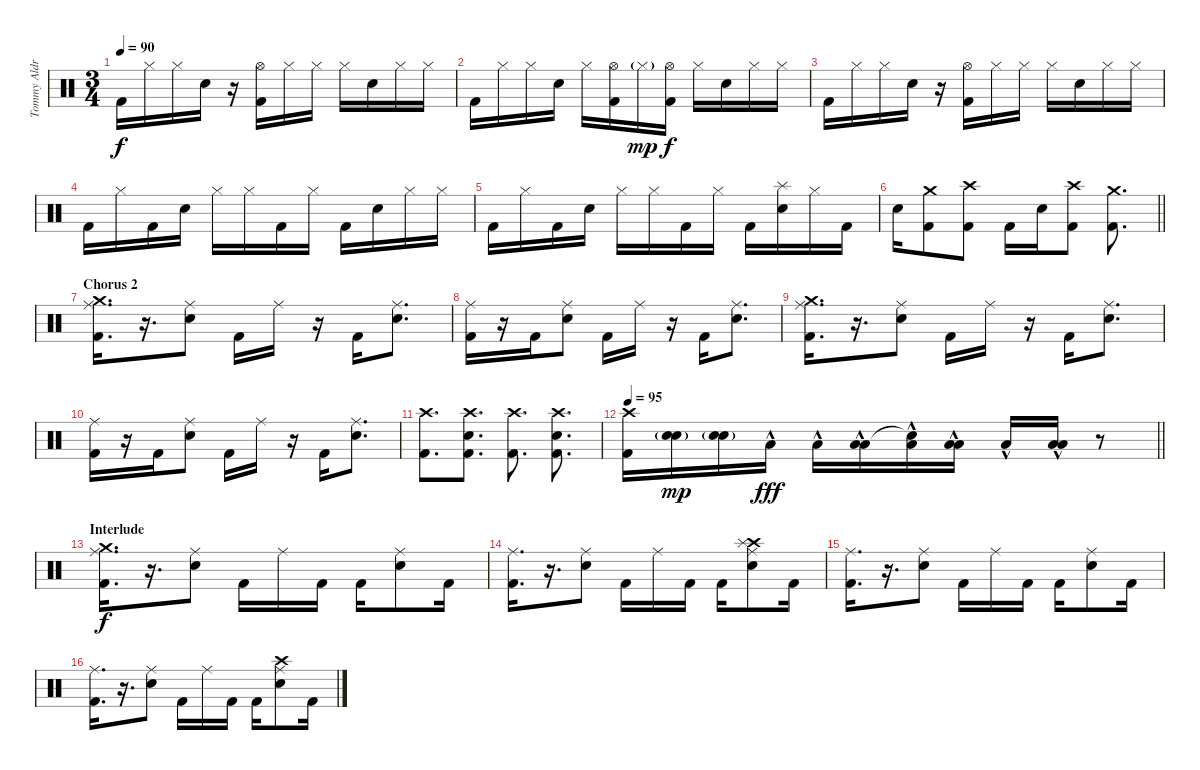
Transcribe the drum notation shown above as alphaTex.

\track ("Tommy Aldridge" "Tommy Aldr") {instrument percussion}
\staff {score}
\articulation defaults
\ts (3 4)
\tempo 90
\clef neutral
\ks c "Kick (hit) 2".16{dy f} "Hi-Hat (closed)".16 "Hi-Hat (closed)".16 "Snare (hit) 2".16
r.16 ("Hi-Hat (open)" "Kick (hit) 2").16 "Hi-Hat (closed)".16 "Hi-Hat (closed)".16 "Hi-Hat (closed)".16 "Snare (hit) 2".16 "Hi-Hat (closed)".16 "Hi-Hat (closed)".16 |
"Kick (hit) 2".16 "Hi-Hat (closed)".16 "Hi-Hat (closed)".16 "Snare (hit) 2".16 "Hi-Hat (closed)".16 ("Hi-Hat (open)" "Kick (hit) 2").16 "Hi-Hat (closed)"{g}.16{dy mp} ("Hi-Hat (open)" "Kick (hit) 2").16{dy f} "Hi-Hat (closed)".16 "Snare (hit) 2".16 "Hi-Hat (closed)".16 "Hi-Hat (closed)".16 |
"Kick (hit) 2".16 "Hi-Hat (closed)".16 "Hi-Hat (closed)".16 "Snare (hit) 2".16 r.16 ("Hi-Hat (open)" "Kick (hit) 2").16 "Hi-Hat (closed)".16 "Hi-Hat (closed)".16 "Hi-Hat (closed)".16 "Snare (hit) 2".16 "Hi-Hat (closed)".16 "Hi-Hat (closed)".16 |
"Kick (hit) 2".16 "Hi-Hat (closed)".16 "Kick (hit) 2".16 "Snare (hit) 2".16 "Hi-Hat (closed)".16 "Hi-Hat (closed)".16 "Kick (hit) 2".16 "Hi-Hat (closed)".16 "Kick (hit) 2".16 "Snare (hit) 2".16 "Hi-Hat (closed)".16 "Hi-Hat (closed)".16 |
"Kick (hit) 2".16 "Hi-Hat (closed)".16 "Kick (hit) 2".16 "Snare (hit) 2".16 "Hi-Hat (closed)".16 "Hi-Hat (closed)".16 "Kick (hit) 2".16 "Hi-Hat (closed)".16 "Kick (hit) 2".16 ("Splash (hit)" "Snare (hit) 2").16 "Hi-Hat (closed)".16 "Kick (hit) 2".16 |
\barLineRight lightlight "Snare (hit) 2".16
("Crash medium (hit)" "Kick (hit) 2").8 ("Crash high (hit)" "Kick (hit) 2").8 "Kick (hit) 2".16 "Snare (hit) 2".16 ("Crash high (hit)" "Kick (hit) 2").8 ("Crash medium (hit)" "Kick (hit) 2").8{d} |
\section ("" "Chorus 2")
("Crash medium (hit)" "Ride (middle)" "Kick (hit) 2").16{d} r.16{d} ("Ride (middle)" "Snare (hit) 2").8 "Kick (hit) 2".16 "Ride (middle)".16 r.16 "Kick (hit) 2".16 ("Ride (middle)" "Snare (hit) 2").8{d} |
("Ride (middle)" "Kick (hit) 2").16 r.16 "Kick (hit) 2".16 ("Ride (middle)" "Snare (hit) 2").8 "Kick (hit) 2".16 "Ride (middle)".16 r.16 "Kick (hit) 2".16 ("Ride (middle)" "Snare (hit) 2").8{d} |
("Crash medium (hit)" "Ride (middle)" "Kick (hit) 2").16{d} r.16{d} ("Ride (middle)" "Snare (hit) 2").8 "Kick (hit) 2".16 "Ride (middle)".16 r.16 "Kick (hit) 2".16 ("Ride (middle)" "Snare (hit) 2").8{d} |
("Ride (middle)" "Kick (hit) 2").16 r.16 "Kick (hit) 2".16 ("Ride (middle)" "Snare (hit) 2").8 "Kick (hit) 2".16 "Ride (middle)".16 r.16 "Kick (hit) 2".16 ("Ride (middle)" "Snare (hit) 2").8{d} |
("Crash high (hit)" "Kick (hit) 2").8{d} ("Kick (hit) 2" "Crash high (hit)" "Snare (hit) 2").8{d} ("Crash high (hit)" "Kick (hit) 2").8{d} ("Kick (hit) 2" "Crash high (hit)" "Snare (hit) 2").8{d} |
\tempo 95
\barLineRight lightlight
("Crash high (hit)" "Kick (hit) 2").16 ("Snare (hit) 2"{g} "Electric Snare (hit)").16{dy mp} ("Snare (hit) 2"{g} "Electric Snare (hit)").16 "Low Tom (hit)"{hac}.16{dy fff} "Low Tom (hit)"{hac}.16 ("Low Tom (hit)"{hac} "Low Tom (hit)"{hac}).16 ("Snare (hit)"{t} "Low Tom (hit)"{hac}).16 ("Low Tom (hit)"{hac} "Low Tom (hit)"{hac}).16 "Low Tom (hit)"{hac}.16 ("Low Tom (hit)"{hac} "Low Tom (hit)"{hac}).16 r.8 |
\section ("" "Interlude")
("Crash medium (hit)" "Ride (middle)" "Kick (hit) 2").16{d dy f} r.16{d} ("Ride (middle)" "Snare (hit) 2").8 "Kick (hit) 2".16 "Ride (middle)".16 "Kick (hit) 2".16 "Kick (hit) 2".16 ("Ride (middle)" "Snare (hit) 2").8 "Kick (hit) 2".16 |
("Ride (middle)" "Kick (hit) 2").16{d} r.16{d} ("Ride (middle)" "Snare (hit) 2").8 "Kick (hit) 2".16 "Ride (middle)".16 "Kick (hit) 2".16 "Kick (hit) 2".16 ("Crash high (hit)" "Splash (hit)" "Ride (middle)" "Snare (hit) 2").8 "Kick (hit) 2".16 |
("Ride (middle)" "Kick (hit) 2").16{d} r.16{d} ("Ride (middle)" "Snare (hit) 2").8 "Kick (hit) 2".16 "Ride (middle)".16 "Kick (hit) 2".16 "Kick (hit) 2".16 ("Ride (middle)" "Snare (hit) 2").8 "Kick (hit) 2".16 |
("Ride (middle)" "Kick (hit) 2").16{d} r.16{d} ("Ride (middle)" "Snare (hit) 2").8 "Kick (hit) 2".16 "Ride (middle)".16 "Kick (hit) 2".16 "Kick (hit) 2".16 ("Crash high (hit)" "Ride (middle)" "Snare (hit) 2").8 "Kick (hit) 2".16
